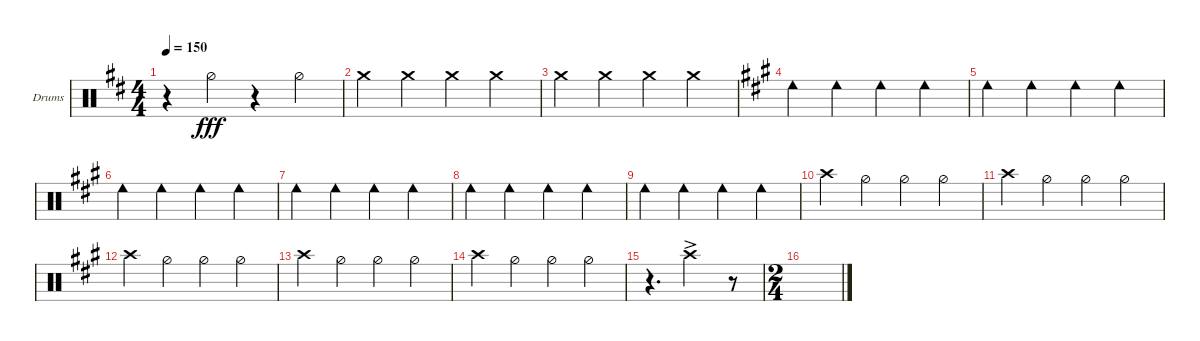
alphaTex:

\defaultSystemsLayout 4
\bracketExtendMode groupsimilarinstruments
\firstSystemTrackNameOrientation horizontal
\otherSystemsTrackNameOrientation horizontal
\track ("Drumkit" "Drums") {instrument percussion}
\staff {score}
\articulation defaults
\ts (4 4)
\tempo 150
\clef neutral
\ks d
r.4{dy fff} "Hi-Hat (half)".4 r.4 "Hi-Hat (half)".4 |
"Crash medium (hit)".4 "Crash medium (hit)".4 "Crash medium (hit)".4 "Crash medium (hit)".4 |
"Crash medium (hit)".4 "Crash medium (hit)".4 "Crash medium (hit)".4 "Crash medium (hit)".4 |
\ks a "Cowbell low (hit)".4 "Cowbell low (hit)".4 "Cowbell low (hit)".4 "Cowbell low (hit)".4
|
"Cowbell low (hit)".4 "Cowbell low (hit)".4 "Cowbell low (hit)".4 "Cowbell low (hit)".4 |
"Cowbell low (hit)".4 "Cowbell low (hit)".4 "Cowbell low (hit)".4 "Cowbell low (hit)".4 |
"Cowbell low (hit)".4 "Cowbell low (hit)".4 "Cowbell low (hit)".4 "Cowbell low (hit)".4 |
"Cowbell low (hit)".4 "Cowbell low (hit)".4 "Cowbell low (hit)".4 "Cowbell low (hit)".4 |
"Cowbell low (hit)".4 "Cowbell low (hit)".4 "Cowbell low (hit)".4 "Cowbell low (hit)".4 |
"Crash high (hit)".4 "Hi-Hat (half)".4 "Hi-Hat (half)".4 "Hi-Hat (half)".4 |
"Crash high (hit)".4 "Hi-Hat (half)".4 "Hi-Hat (half)".4 "Hi-Hat (half)".4 |
"Crash high (hit)".4 "Hi-Hat (half)".4 "Hi-Hat (half)".4 "Hi-Hat (half)".4 |
"Crash high (hit)".4 "Hi-Hat (half)".4 "Hi-Hat (half)".4 "Hi-Hat (half)".4 |
"Crash high (hit)".4 "Hi-Hat (half)".4 "Hi-Hat (half)".4 "Hi-Hat (half)".4 |
r.4{d} "Crash high (hit)"{ac}.2 r.8 |
\ts (2 4)
